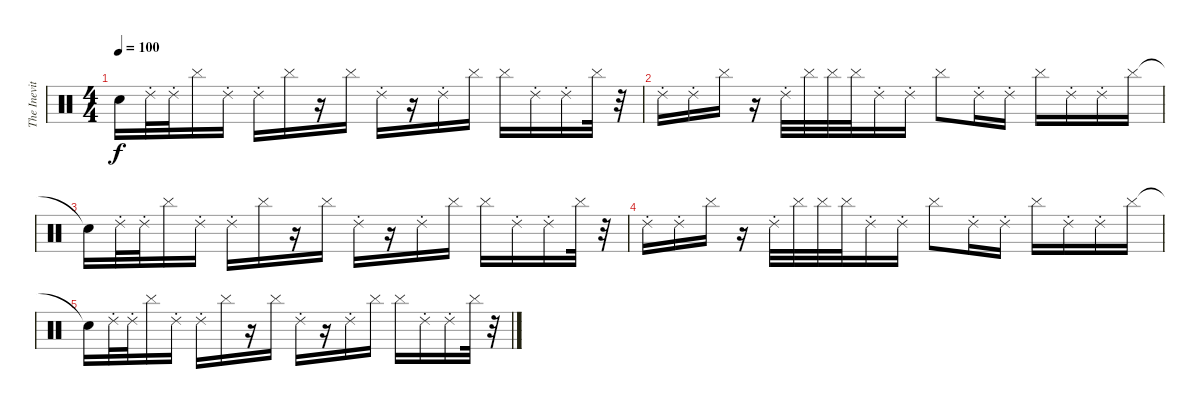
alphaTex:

\track ("The Inevitable" "The Inevit") {instrument percussion}
\staff {score}
\articulation defaults
\ts (4 4)
\tempo 100
\clef neutral
\ks c "Snare (hit)"{t}.16{dy f} "Ride (choke) 2".32 "Ride (choke) 2".32 "Cymbal (hit)".16 "Ride (choke) 2".16 "Ride (choke) 2".16 "Cymbal (hit)".16
r.16 "Cymbal (hit)".16 "Ride (choke) 2".16 r.16 "Ride (choke) 2".16 "Cymbal (hit)".16 "Cymbal (hit)".16 "Ride (choke) 2".16 "Ride (choke) 2".16 "Cymbal (hit)".32 r.32 |
"Ride (choke) 2".16 "Ride (choke) 2".16 "Cymbal (hit)".16 r.16 "Ride (choke) 2".32 "Cymbal (hit)".32 "Cymbal (hit)".32 "Cymbal (hit)".32 "Ride (choke) 2".16 "Ride (choke) 2".16 "Cymbal (hit)".8 "Ride (choke) 2".16 "Ride (choke) 2".16 "Cymbal (hit)".16 "Ride (choke) 2".16 "Ride (choke) 2".16 "Cymbal (hit)".16 |
"Snare (hit)"{t}.16 "Ride (choke) 2".32 "Ride (choke) 2".32 "Cymbal (hit)".16 "Ride (choke) 2".16 "Ride (choke) 2".16 "Cymbal (hit)".16 r.16 "Cymbal (hit)".16 "Ride (choke) 2".16 r.16 "Ride (choke) 2".16 "Cymbal (hit)".16 "Cymbal (hit)".16 "Ride (choke) 2".16 "Ride (choke) 2".16 "Cymbal (hit)".32 r.32 |
"Ride (choke) 2".16 "Ride (choke) 2".16 "Cymbal (hit)".16 r.16 "Ride (choke) 2".32 "Cymbal (hit)".32 "Cymbal (hit)".32 "Cymbal (hit)".32 "Ride (choke) 2".16 "Ride (choke) 2".16 "Cymbal (hit)".8 "Ride (choke) 2".16 "Ride (choke) 2".16 "Cymbal (hit)".16 "Ride (choke) 2".16 "Ride (choke) 2".16 "Cymbal (hit)".16 |
"Snare (hit)"{t}.16 "Ride (choke) 2".32 "Ride (choke) 2".32 "Cymbal (hit)".16 "Ride (choke) 2".16 "Ride (choke) 2".16 "Cymbal (hit)".16 r.16 "Cymbal (hit)".16 "Ride (choke) 2".16 r.16 "Ride (choke) 2".16 "Cymbal (hit)".16 "Cymbal (hit)".16 "Ride (choke) 2".16 "Ride (choke) 2".16 "Cymbal (hit)".32 r.32
